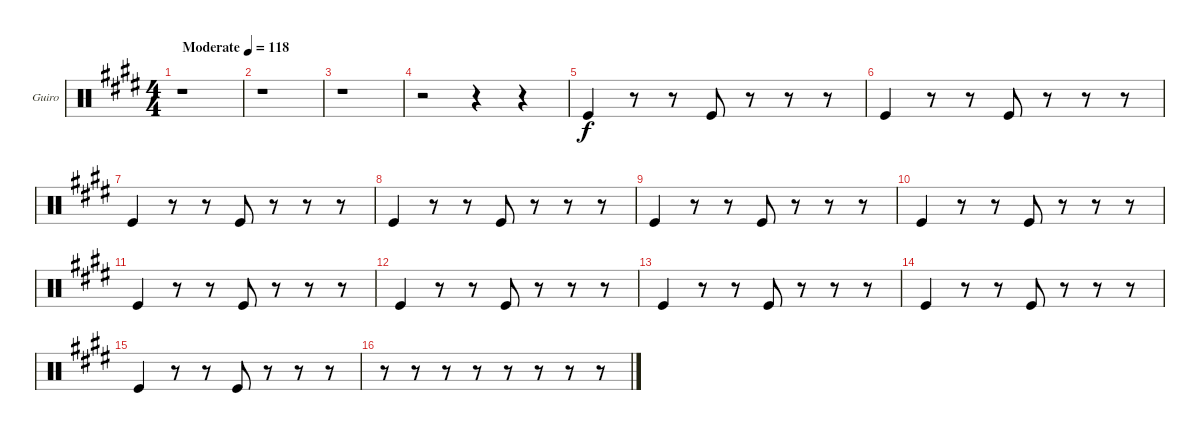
\bracketExtendMode groupsimilarinstruments
\firstSystemTrackNameOrientation horizontal
\otherSystemsTrackNameOrientation horizontal
\track ("Guiro" "Guiro") {instrument percussion}
\staff {score}
\articulation defaults
\ts (4 4)
\beaming (8 2 2 2 2)
\tempo (118 "Moderate")
\clef neutral
\ks e
r.1{dy f} |
r.1 |
r.1 |
r.2 r.4 r.4 |
"Kick (hit)".4 r.8 r.8 "Kick (hit)".8 r.8 r.8 r.8 |
"Kick (hit)".4 r.8 r.8 "Kick (hit)".8 r.8 r.8 r.8 |
"Kick (hit)".4 r.8 r.8 "Kick (hit)".8 r.8 r.8 r.8 |
"Kick (hit)".4 r.8 r.8 "Kick (hit)".8 r.8 r.8 r.8 |
"Kick (hit)".4 r.8 r.8 "Kick (hit)".8 r.8 r.8 r.8 |
"Kick (hit)".4 r.8 r.8 "Kick (hit)".8 r.8 r.8 r.8 |
"Kick (hit)".4 r.8 r.8 "Kick (hit)".8 r.8 r.8 r.8 |
"Kick (hit)".4 r.8 r.8 "Kick (hit)".8 r.8 r.8 r.8 |
"Kick (hit)".4 r.8 r.8 "Kick (hit)".8 r.8 r.8 r.8 |
"Kick (hit)".4 r.8 r.8 "Kick (hit)".8 r.8 r.8 r.8 |
"Kick (hit)".4 r.8 r.8 "Kick (hit)".8 r.8 r.8 r.8 |
r.8 r.8 r.8 r.8 r.8 r.8 r.8 r.8
